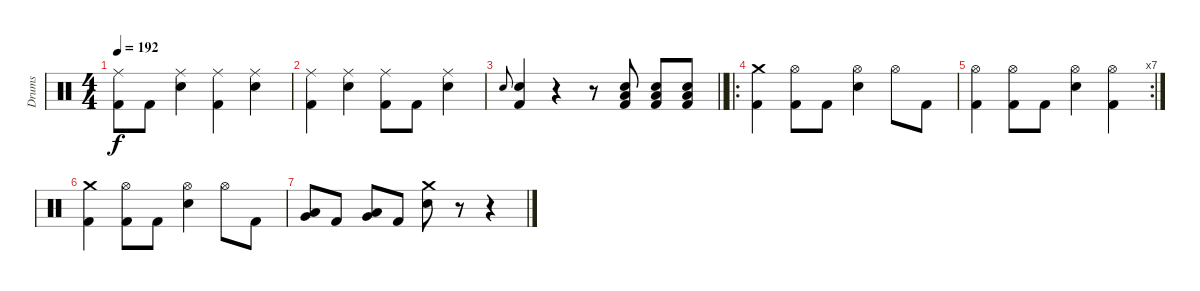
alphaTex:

\track ("Drums" "Drums") {instrument percussion}
\staff {score}
\articulation defaults
\ts (4 4)
\tempo 192
\clef neutral
\ks c
("Ride (middle)" "Kick (hit) 2").8{dy f} "Kick (hit) 2".8 ("Ride (middle)" "Electric Snare (hit)").4 ("Ride (middle)" "Kick (hit) 2").4 ("Ride (middle)" "Electric Snare (hit)").4 |
("Ride (middle)" "Kick (hit) 2").4 ("Ride (middle)" "Electric Snare (hit)").4 ("Ride (middle)" "Kick (hit) 2").8 "Kick (hit) 2".8 ("Ride (middle)" "Electric Snare (hit)").4 |
\barLineRight lightlight "Electric Snare (hit)".8{gr onbeat}
("Electric Snare (hit)" "Kick (hit) 2").4 r.4 r.8 ("Low Tom (hit)" "Electric Snare (hit)" "Kick (hit) 2").8 ("Low Tom (hit)" "Electric Snare (hit)" "Kick (hit) 2").8 ("Low Tom (hit)" "Electric Snare (hit)" "Kick (hit) 2").8 |
\ro
("Crash medium (hit)" "Kick (hit) 2").4 ("Hi-Hat (open)" "Kick (hit) 2").8 "Kick (hit) 2".8 ("Hi-Hat (open)" "Electric Snare (hit)").4 "Hi-Hat (open)".8 "Kick (hit) 2".8 |
\rc 7
("Hi-Hat (open)" "Kick (hit) 2").4 ("Hi-Hat (open)" "Kick (hit) 2").8 "Kick (hit) 2".8 ("Hi-Hat (open)" "Electric Snare (hit)").4 ("Hi-Hat (open)" "Kick (hit) 2").4 |
("Crash medium (hit)" "Kick (hit) 2").4 ("Hi-Hat (open)" "Kick (hit) 2").8 "Kick (hit) 2".8 ("Hi-Hat (open)" "Electric Snare (hit)").4 "Hi-Hat (open)".8 "Kick (hit) 2".8 |
("Low Tom (hit)" "Very Low Tom (hit)").8 "Kick (hit) 2".8 ("Very Low Tom (hit)" "Low Floor Tom (hit)").8 "Kick (hit) 2".8 ("Crash medium (hit)" "Electric Snare (hit)").8 r.8 r.4
